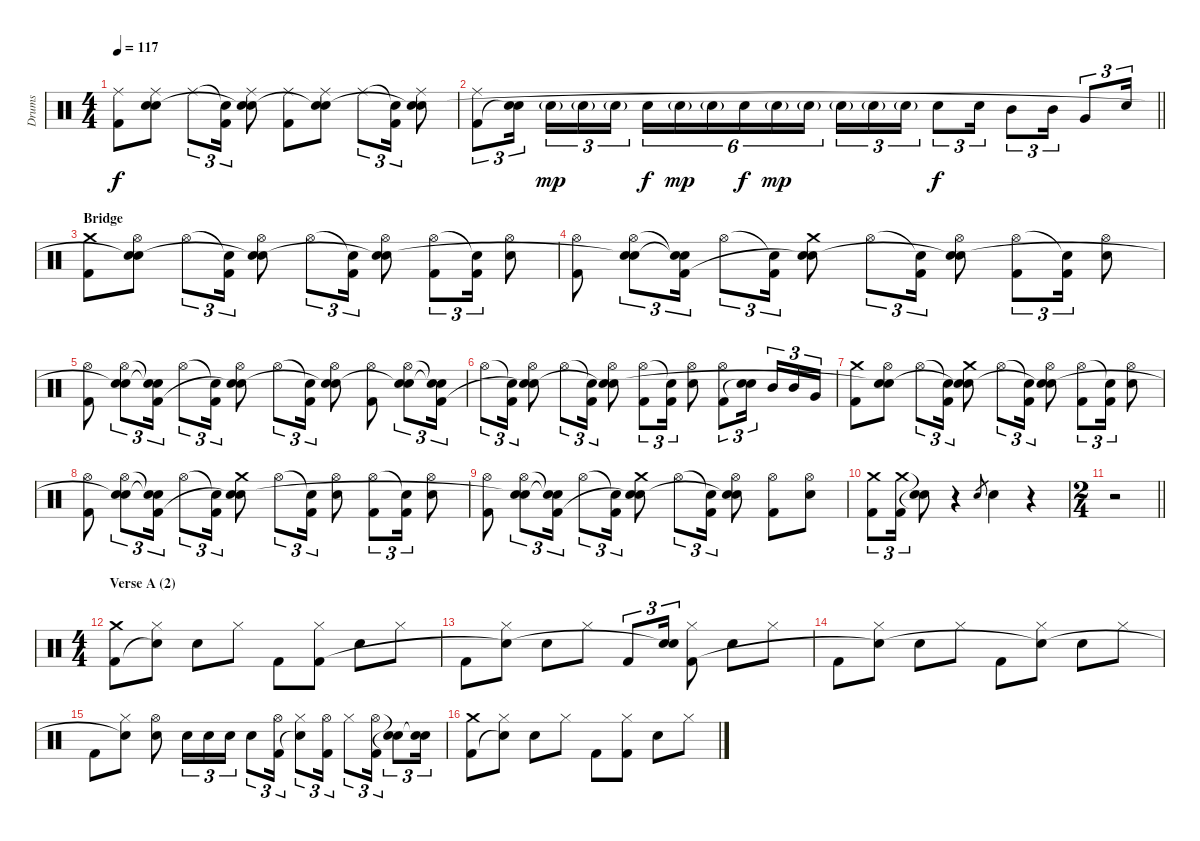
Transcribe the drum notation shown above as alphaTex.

\track ("Drums" "Drums") {instrument percussion}
\staff {score}
\articulation defaults
\ts (4 4)
\tempo 117
\clef neutral
\ks aminor
("Ride (middle)" "Kick (hit) 2").8{dy f} ("Ride (middle)" "Electric Snare (hit)" "Snare (hit)"{t}).8 "Ride (middle)".8{tu (3 2)} ("Snare (hit)"{t} "Kick (hit) 2").16{tu (3 2)} ("Ride (middle)" "Electric Snare (hit)" "Snare (hit)"{t}).8 ("Ride (middle)" "Kick (hit) 2").8 ("Ride (middle)" "Electric Snare (hit)" "Snare (hit)"{t}).8 "Ride (middle)".8{tu (3 2)} ("Snare (hit)"{t} "Kick (hit) 2").16{tu (3 2)} ("Ride (middle)" "Electric Snare (hit)" "Snare (hit)"{t}).8 |
\barLineRight lightlight
("Ride (middle)" "Kick (hit) 2").8{tu (3 2)} ("Electric Snare (hit)" "Snare (hit)"{t}).16{tu (3 2)} "Electric Snare (hit)"{g}.16{tu (3 2) dy mp} "Electric Snare (hit)"{g}.16{tu (3 2)} "Electric Snare (hit)"{g}.16{tu (3 2)} "Electric Snare (hit)".16{tu (6 4) dy f} "Electric Snare (hit)"{g}.16{tu (6 4) dy mp} "Electric Snare (hit)"{g}.16{tu (6 4)} "Electric Snare (hit)".16{tu (6 4) dy f} "Electric Snare (hit)"{g}.16{tu (6 4) dy mp} "Electric Snare (hit)"{g}.16{tu (6 4)} "Electric Snare (hit)"{g}.16{tu (3 2)} "Electric Snare (hit)"{g}.16{tu (3 2)} "Electric Snare (hit)"{g}.16{tu (3 2)} "Electric Snare (hit)".8{tu (3 2) dy f} "Electric Snare (hit)".16{tu (3 2)} "Mid Tom (hit)".8{tu (3 2)} "Mid Tom (hit)".16{tu (3 2)} "Very Low Tom (hit)".8{tu (3 2)} "Electric Snare (hit)".16{tu (3 2)} |
\section ("" "Bridge")
("Crash medium (hit)" "Kick (hit) 2").8 ("Hi-Hat (open)" "Electric Snare (hit)" "Snare (hit)"{t}).8 "Hi-Hat (open)".8{tu (3 2)} ("Snare (hit)"{t} "Kick (hit) 2").16{tu (3 2)} ("Hi-Hat (open)" "Electric Snare (hit)" "Snare (hit)"{t}).8 "Hi-Hat (open)".8{tu (3 2)} ("Snare (hit)"{t} "Kick (hit) 2").16{tu (3 2)} ("Hi-Hat (open)" "Electric Snare (hit)" "Snare (hit)"{t}).8 ("Hi-Hat (open)" "Kick (hit) 2").8{tu (3 2)} ("Snare (hit)"{t} "Kick (hit) 2").16{tu (3 2)} ("Hi-Hat (open)" "Electric Snare (hit)").8 |
("Hi-Hat (open)" "Kick (hit) 2").8 ("Hi-Hat (open)" "Electric Snare (hit)" "Snare (hit)"{t}).8{tu (3 2)} ("Snare (hit)"{t} "Snare (hit)"{t} "Kick (hit) 2").16{tu (3 2)} "Hi-Hat (open)".8{tu (3 2)} ("Snare (hit)"{t} "Kick (hit) 2").16{tu (3 2)} ("Crash medium (hit)" "Electric Snare (hit)" "Snare (hit)"{t}).8 "Hi-Hat (open)".8{tu (3 2)} ("Snare (hit)"{t} "Kick (hit) 2").16{tu (3 2)} ("Hi-Hat (open)" "Electric Snare (hit)" "Snare (hit)"{t}).8 ("Hi-Hat (open)" "Kick (hit) 2").8{tu (3 2)} ("Snare (hit)"{t} "Kick (hit) 2").16{tu (3 2)} ("Hi-Hat (open)" "Electric Snare (hit)").8 |
("Hi-Hat (open)" "Kick (hit) 2").8 ("Hi-Hat (open)" "Electric Snare (hit)" "Snare (hit)"{t}).8{tu (3 2)} ("Snare (hit)"{t} "Snare (hit)"{t} "Kick (hit) 2").16{tu (3 2)} "Hi-Hat (open)".8{tu (3 2)} ("Snare (hit)"{t} "Kick (hit) 2").16{tu (3 2)} ("Hi-Hat (open)" "Electric Snare (hit)" "Snare (hit)"{t}).8 "Hi-Hat (open)".8{tu (3 2)} ("Snare (hit)"{t} "Kick (hit) 2").16{tu (3 2)} ("Hi-Hat (open)" "Electric Snare (hit)" "Snare (hit)"{t}).8 ("Hi-Hat (open)" "Kick (hit) 2").8 ("Hi-Hat (open)" "Electric Snare (hit)" "Snare (hit)"{t}).8{tu (3 2)} ("Snare (hit)"{t} "Snare (hit)"{t} "Kick (hit) 2").16{tu (3 2)} |
"Hi-Hat (open)".8{tu (3 2)} ("Snare (hit)"{t} "Kick (hit) 2").16{tu (3 2)} ("Hi-Hat (open)" "Electric Snare (hit)" "Snare (hit)"{t}).8 "Hi-Hat (open)".8{tu (3 2)} ("Snare (hit)"{t} "Kick (hit) 2").16{tu (3 2)} ("Hi-Hat (open)" "Electric Snare (hit)" "Snare (hit)"{t}).8 ("Hi-Hat (open)" "Kick (hit) 2").8{tu (3 2)} ("Snare (hit)"{t} "Kick (hit) 2").16{tu (3 2)} ("Hi-Hat (open)" "Electric Snare (hit)").8 ("Hi-Hat (open)" "Kick (hit) 2").8{tu (3 2)} ("Electric Snare (hit)" "Snare (hit)"{t}).16{tu (3 2)} "Mid Tom (hit)".16{tu (3 2)} "Mid Tom (hit)".16{tu (3 2)} "Very Low Tom (hit)".16{tu (3 2)} |
("Crash medium (hit)" "Kick (hit) 2").8 ("Hi-Hat (open)" "Electric Snare (hit)" "Snare (hit)"{t}).8 "Hi-Hat (open)".8{tu (3 2)} ("Snare (hit)"{t} "Kick (hit) 2").16{tu (3 2)} ("Crash medium (hit)" "Electric Snare (hit)" "Snare (hit)"{t}).8 "Hi-Hat (open)".8{tu (3 2)} ("Snare (hit)"{t} "Kick (hit) 2").16{tu (3 2)} ("Hi-Hat (open)" "Electric Snare (hit)" "Snare (hit)"{t}).8 ("Hi-Hat (open)" "Kick (hit) 2").8{tu (3 2)} ("Snare (hit)"{t} "Kick (hit) 2").16{tu (3 2)} ("Hi-Hat (open)" "Electric Snare (hit)").8 |
("Hi-Hat (open)" "Kick (hit) 2").8 ("Hi-Hat (open)" "Electric Snare (hit)" "Snare (hit)"{t}).8{tu (3 2)} ("Snare (hit)"{t} "Snare (hit)"{t} "Kick (hit) 2").16{tu (3 2)} "Hi-Hat (open)".8{tu (3 2)} ("Snare (hit)"{t} "Kick (hit) 2").16{tu (3 2)} ("Crash medium (hit)" "Electric Snare (hit)" "Snare (hit)"{t}).8 "Hi-Hat (open)".8{tu (3 2)} ("Snare (hit)"{t} "Kick (hit) 2").16{tu (3 2)} ("Hi-Hat (open)" "Electric Snare (hit)").8 ("Hi-Hat (open)" "Kick (hit) 2").8{tu (3 2)} ("Snare (hit)"{t} "Kick (hit) 2").16{tu (3 2)} ("Hi-Hat (open)" "Electric Snare (hit)").8 |
("Hi-Hat (open)" "Kick (hit) 2").8 ("Hi-Hat (open)" "Electric Snare (hit)" "Snare (hit)"{t}).8{tu (3 2)} ("Snare (hit)"{t} "Snare (hit)"{t} "Kick (hit) 2").16{tu (3 2)} "Hi-Hat (open)".8{tu (3 2)} ("Snare (hit)"{t} "Kick (hit) 2").16{tu (3 2)} ("Crash medium (hit)" "Electric Snare (hit)" "Snare (hit)"{t}).8 "Hi-Hat (open)".8{tu (3 2)} ("Snare (hit)"{t} "Kick (hit) 2").16{tu (3 2)} ("Hi-Hat (open)" "Electric Snare (hit)" "Snare (hit)"{t}).8 ("Hi-Hat (open)" "Kick (hit) 2").8 ("Hi-Hat (open)" "Electric Snare (hit)").8 |
("Crash medium (hit)" "Kick (hit) 2").8{tu (3 2)} ("Crash medium (hit)" "Kick (hit) 2").16{tu (3 2)} ("Snare (hit)"{t} "Snare (hit)"{t}).8 r.4 "Electric Snare (hit)".8{gr} "Electric Snare (hit)".4 r.4 |
\ts (2 4)
\barLineRight lightlight
r.2 |
\ts (4 4)
\section ("" "Verse A (2)")
("Crash medium (hit)" "Kick (hit) 2").8 ("Hi-Hat (closed)" "Snare (hit)"{t}).8 "Electric Snare (hit)".8 "Hi-Hat (closed)".8 "Kick (hit) 2".8 ("Hi-Hat (closed)" "Kick (hit) 2").8 "Electric Snare (hit)".8 "Hi-Hat (closed)".8 |
"Kick (hit) 2".8 ("Hi-Hat (closed)" "Snare (hit)"{t}).8 "Electric Snare (hit)".8 "Hi-Hat (closed)".8 "Kick (hit) 2".8{tu (3 2)} ("Electric Snare (hit)" "Snare (hit)"{t}).16{tu (3 2)} ("Hi-Hat (closed)" "Kick (hit) 2").8 "Electric Snare (hit)".8 "Hi-Hat (closed)".8 |
"Kick (hit) 2".8 ("Hi-Hat (closed)" "Snare (hit)"{t}).8 "Electric Snare (hit)".8 "Hi-Hat (closed)".8 "Kick (hit) 2".8 ("Hi-Hat (closed)" "Snare (hit)"{t}).8 "Electric Snare (hit)".8 "Hi-Hat (closed)".8 |
"Kick (hit) 2".8 ("Hi-Hat (closed)" "Snare (hit)"{t}).8 ("Hi-Hat (open)" "Electric Snare (hit)").8 "Electric Snare (hit)".16{tu (3 2)} "Electric Snare (hit)".16{tu (3 2)} "Electric Snare (hit)".16{tu (3 2)} "Electric Snare (hit)".8{tu (3 2)} ("Hi-Hat (open)" "Kick (hit) 2").16{tu (3 2)} ("Hi-Hat (closed)" "Snare (hit)"{t}).8{tu (3 2)} ("Hi-Hat (open)" "Kick (hit) 2").16{tu (3 2)} "Hi-Hat (closed)".8{tu (3 2)} ("Hi-Hat (open)" "Kick (hit) 2").16{tu (3 2)} ("Snare (hit)"{t} "Snare (hit)"{t}).8{tu (3 2)} ("Electric Snare (hit)" "Snare (hit)"{t}).16{tu (3 2)} |
("Crash medium (hit)" "Kick (hit) 2").8 ("Hi-Hat (closed)" "Snare (hit)"{t}).8 "Electric Snare (hit)".8 "Hi-Hat (closed)".8 "Kick (hit) 2".8 ("Hi-Hat (closed)" "Kick (hit) 2").8 "Electric Snare (hit)".8 "Hi-Hat (closed)".8
